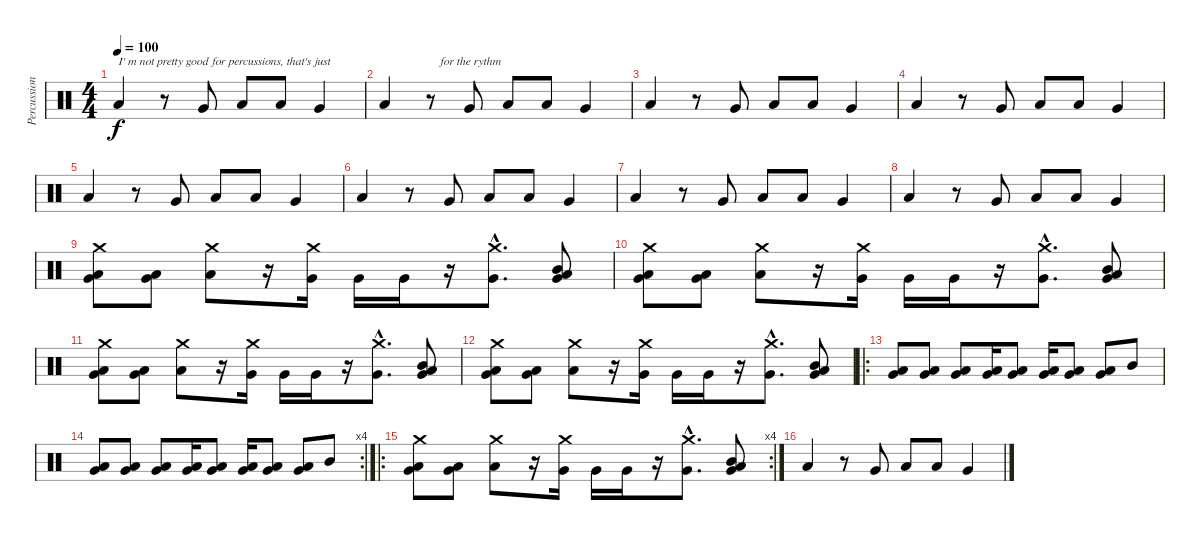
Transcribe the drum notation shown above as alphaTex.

\track ("Percussions" "Percussion") {instrument percussion}
\staff {score}
\articulation defaults
\ts (4 4)
\tempo 100
\clef neutral
\ks c "Low Floor Tom (hit)".4{txt "I' m not pretty good for percussions, that's just " dy f}
r.8 "Very Low Tom (hit)".8 "Low Tom (hit)".8 "Low Tom (hit)".8 "Very Low Tom (hit)".4 |
"Low Floor Tom (hit)".4 r.8{txt "   for the rythm"} "Very Low Tom (hit)".8 "Low Tom (hit)".8 "Low Tom (hit)".8 "Very Low Tom (hit)".4 |
"Low Floor Tom (hit)".4 r.8 "Very Low Tom (hit)".8 "Low Tom (hit)".8 "Low Tom (hit)".8 "Very Low Tom (hit)".4 |
"Low Floor Tom (hit)".4 r.8 "Very Low Tom (hit)".8 "Low Tom (hit)".8 "Low Tom (hit)".8 "Very Low Tom (hit)".4 |
"Low Floor Tom (hit)".4 r.8 "Very Low Tom (hit)".8 "Low Tom (hit)".8 "Low Tom (hit)".8 "Very Low Tom (hit)".4 |
"Low Floor Tom (hit)".4 r.8 "Very Low Tom (hit)".8 "Low Tom (hit)".8 "Low Tom (hit)".8 "Very Low Tom (hit)".4 |
"Low Floor Tom (hit)".4 r.8 "Very Low Tom (hit)".8 "Low Tom (hit)".8 "Low Tom (hit)".8 "Very Low Tom (hit)".4 |
"Low Floor Tom (hit)".4 r.8 "Very Low Tom (hit)".8 "Low Tom (hit)".8 "Low Tom (hit)".8 "Very Low Tom (hit)".4 |
("Low Floor Tom (hit)" "Very Low Tom (hit)" "Crash medium (hit)").8 ("Low Floor Tom (hit)" "Very Low Tom (hit)").8 ("Low Floor Tom (hit)" "Crash medium (hit)").8 r.16 ("Very Low Tom (hit)" "Crash medium (hit)").16 "Very Low Tom (hit)".16 "Very Low Tom (hit)".16 r.16 ("Very Low Tom (hit)"{hac} "Crash medium (hit)"{hac}).8{d} ("Low Floor Tom (hit)" "Very Low Tom (hit)" "Mid Tom (hit)").8 |
("Low Floor Tom (hit)" "Very Low Tom (hit)" "Crash medium (hit)").8 ("Low Floor Tom (hit)" "Very Low Tom (hit)").8 ("Low Floor Tom (hit)" "Crash medium (hit)").8 r.16 ("Very Low Tom (hit)" "Crash medium (hit)").16 "Very Low Tom (hit)".16 "Very Low Tom (hit)".16 r.16 ("Very Low Tom (hit)"{hac} "Crash medium (hit)"{hac}).8{d} ("Low Floor Tom (hit)" "Very Low Tom (hit)" "Mid Tom (hit)").8 |
("Low Floor Tom (hit)" "Very Low Tom (hit)" "Crash medium (hit)").8 ("Low Floor Tom (hit)" "Very Low Tom (hit)").8 ("Low Floor Tom (hit)" "Crash medium (hit)").8 r.16 ("Very Low Tom (hit)" "Crash medium (hit)").16 "Very Low Tom (hit)".16 "Very Low Tom (hit)".16 r.16 ("Very Low Tom (hit)"{hac} "Crash medium (hit)"{hac}).8{d} ("Low Floor Tom (hit)" "Very Low Tom (hit)" "Mid Tom (hit)").8 |
("Low Floor Tom (hit)" "Very Low Tom (hit)" "Crash medium (hit)").8 ("Low Floor Tom (hit)" "Very Low Tom (hit)").8 ("Low Floor Tom (hit)" "Crash medium (hit)").8 r.16 ("Very Low Tom (hit)" "Crash medium (hit)").16 "Very Low Tom (hit)".16 "Very Low Tom (hit)".16 r.16 ("Very Low Tom (hit)"{hac} "Crash medium (hit)"{hac}).8{d} ("Low Floor Tom (hit)" "Very Low Tom (hit)" "Mid Tom (hit)").8 |
\ro
("Low Floor Tom (hit)" "Very Low Tom (hit)").8 ("Low Floor Tom (hit)" "Very Low Tom (hit)").8 ("Low Floor Tom (hit)" "Very Low Tom (hit)").8 ("Low Floor Tom (hit)" "Very Low Tom (hit)").16 ("Low Floor Tom (hit)" "Very Low Tom (hit)").8 ("Low Floor Tom (hit)" "Very Low Tom (hit)").16 ("Low Floor Tom (hit)" "Very Low Tom (hit)").8 ("Low Floor Tom (hit)" "Very Low Tom (hit)").8 "Mid Tom (hit)".8 |
\rc 4
("Low Floor Tom (hit)" "Very Low Tom (hit)").8 ("Low Floor Tom (hit)" "Very Low Tom (hit)").8 ("Low Floor Tom (hit)" "Very Low Tom (hit)").8 ("Low Floor Tom (hit)" "Very Low Tom (hit)").16 ("Low Floor Tom (hit)" "Very Low Tom (hit)").8 ("Low Floor Tom (hit)" "Very Low Tom (hit)").16 ("Low Floor Tom (hit)" "Very Low Tom (hit)").8 ("Low Floor Tom (hit)" "Very Low Tom (hit)").8 "Mid Tom (hit)".8 |
\ro
\rc 4
("Low Floor Tom (hit)" "Very Low Tom (hit)" "Crash medium (hit)").8 ("Low Floor Tom (hit)" "Very Low Tom (hit)").8 ("Low Floor Tom (hit)" "Crash medium (hit)").8 r.16 ("Very Low Tom (hit)" "Crash medium (hit)").16 "Very Low Tom (hit)".16 "Very Low Tom (hit)".16 r.16 ("Very Low Tom (hit)"{hac} "Crash medium (hit)"{hac}).8{d} ("Low Floor Tom (hit)" "Very Low Tom (hit)" "Mid Tom (hit)").8 |
"Low Floor Tom (hit)".4 r.8 "Very Low Tom (hit)".8 "Low Tom (hit)".8 "Low Tom (hit)".8 "Very Low Tom (hit)".4
